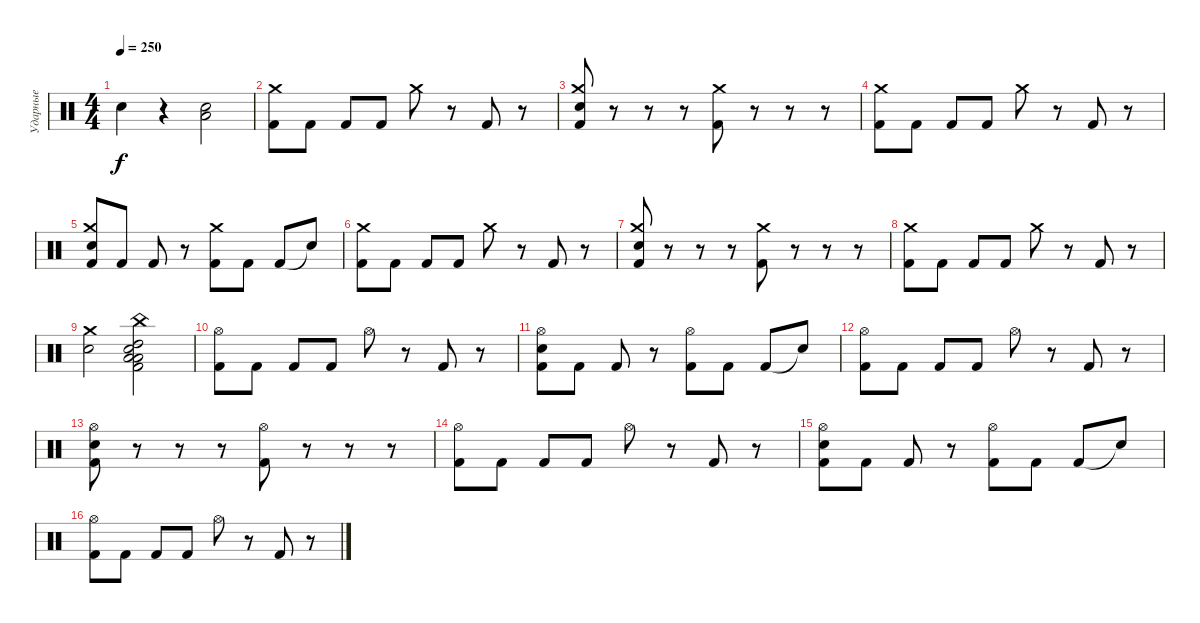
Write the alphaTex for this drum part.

\track ("Ударные" "Ударные") {instrument percussion}
\staff {score}
\articulation defaults
\ts (4 4)
\tempo 250
\clef neutral
\ks c "Electric Snare (hit)".4{dy f}
r.4 ("Electric Snare (hit)" "Low Floor Tom (hit)").2 |
("Crash medium (hit)" "Kick (hit) 2").8 "Kick (hit) 2".8 "Kick (hit) 2".8 "Kick (hit) 2".8 "Crash medium (hit)".8 r.8 "Kick (hit) 2".8 r.8 |
("Crash medium (hit)" "Electric Snare (hit)" "Kick (hit) 2").8 r.8 r.8 r.8 ("Crash medium (hit)" "Kick (hit) 2").8 r.8 r.8 r.8 |
("Crash medium (hit)" "Kick (hit) 2").8 "Kick (hit) 2".8 "Kick (hit) 2".8 "Kick (hit) 2".8 "Crash medium (hit)".8 r.8 "Kick (hit) 2".8 r.8 |
("Crash medium (hit)" "Kick (hit) 2" "Electric Snare (hit)").8 "Kick (hit) 2".8 "Kick (hit) 2".8 r.8 ("Crash medium (hit)" "Kick (hit) 2").8 "Kick (hit) 2".8 "Kick (hit) 2".8 "Snare (hit)"{t}.8 |
("Crash medium (hit)" "Kick (hit) 2").8 "Kick (hit) 2".8 "Kick (hit) 2".8 "Kick (hit) 2".8 "Crash medium (hit)".8 r.8 "Kick (hit) 2".8 r.8 |
("Crash medium (hit)" "Kick (hit) 2" "Electric Snare (hit)").8 r.8 r.8 r.8 ("Crash medium (hit)" "Kick (hit) 2").8 r.8 r.8 r.8 |
("Crash medium (hit)" "Kick (hit) 2").8 "Kick (hit) 2".8 "Kick (hit) 2".8 "Kick (hit) 2".8 "Crash medium (hit)".8 r.8 "Kick (hit) 2".8 r.8 |
("Snare (hit) 2" "Crash medium (hit)").2 ("Snare (hit) 2" "Low Floor Tom (hit)" "High Tom (hit)" "Low Tom (hit)" "China (hit)" "Kick (hit) 2").2 |
("Hi-Hat (open)" "Kick (hit) 2").8 "Kick (hit) 2".8 "Kick (hit) 2".8 "Kick (hit) 2".8 "Hi-Hat (open)".8 r.8 "Kick (hit) 2".8 r.8 |
("Hi-Hat (open)" "Kick (hit) 2" "Electric Snare (hit)").8 "Kick (hit) 2".8 "Kick (hit) 2".8 r.8 ("Hi-Hat (open)" "Kick (hit) 2").8 "Kick (hit) 2".8 "Kick (hit) 2".8 "Snare (hit)"{t}.8 |
("Hi-Hat (open)" "Kick (hit) 2").8 "Kick (hit) 2".8 "Kick (hit) 2".8 "Kick (hit) 2".8 "Hi-Hat (open)".8 r.8 "Kick (hit) 2".8 r.8 |
("Hi-Hat (open)" "Kick (hit) 2" "Electric Snare (hit)").8 r.8 r.8 r.8 ("Hi-Hat (open)" "Kick (hit) 2").8 r.8 r.8 r.8 |
("Hi-Hat (open)" "Kick (hit) 2").8 "Kick (hit) 2".8 "Kick (hit) 2".8 "Kick (hit) 2".8 "Hi-Hat (open)".8 r.8 "Kick (hit) 2".8 r.8 |
("Hi-Hat (open)" "Kick (hit) 2" "Electric Snare (hit)").8 "Kick (hit) 2".8 "Kick (hit) 2".8 r.8 ("Hi-Hat (open)" "Kick (hit) 2").8 "Kick (hit) 2".8 "Kick (hit) 2".8 "Snare (hit)"{t}.8 |
("Hi-Hat (open)" "Kick (hit) 2").8 "Kick (hit) 2".8 "Kick (hit) 2".8 "Kick (hit) 2".8 "Hi-Hat (open)".8 r.8 "Kick (hit) 2".8 r.8
